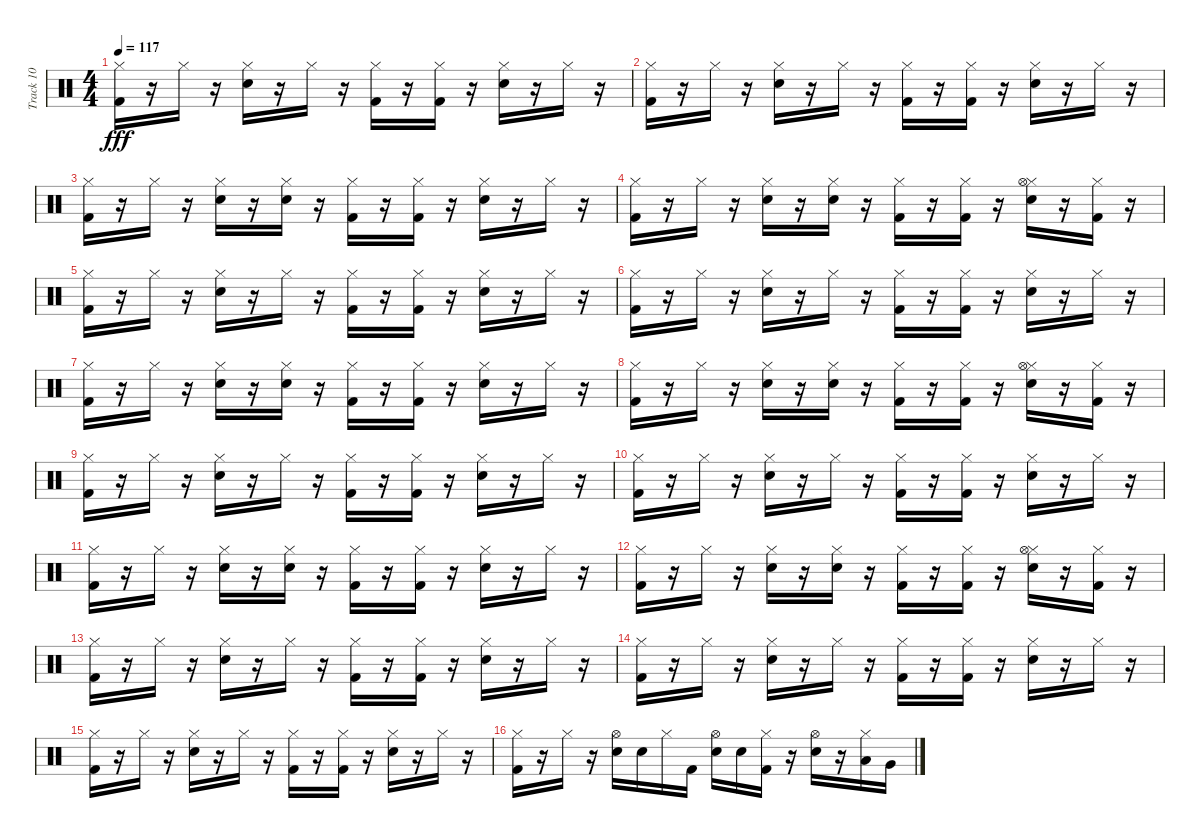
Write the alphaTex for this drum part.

\track ("Track 10" "Track 10") {instrument percussion}
\staff {score}
\articulation defaults
\ts (4 4)
\tempo 117
\clef neutral
\ks c
("Hi-Hat (closed)" "Kick (hit) 2").16{dy fff} r.16 "Hi-Hat (closed)".16 r.16 ("Hi-Hat (closed)" "Snare (hit) 2").16 r.16 "Hi-Hat (closed)".16 r.16 ("Hi-Hat (closed)" "Kick (hit) 2").16 r.16 ("Hi-Hat (closed)" "Kick (hit) 2").16 r.16 ("Hi-Hat (closed)" "Snare (hit) 2").16 r.16 "Hi-Hat (closed)".16 r.16 |
("Hi-Hat (closed)" "Kick (hit) 2").16 r.16 "Hi-Hat (closed)".16 r.16 ("Hi-Hat (closed)" "Snare (hit) 2").16 r.16 "Hi-Hat (closed)".16 r.16 ("Hi-Hat (closed)" "Kick (hit) 2").16 r.16 ("Hi-Hat (closed)" "Kick (hit) 2").16 r.16 ("Hi-Hat (closed)" "Snare (hit) 2").16 r.16 "Hi-Hat (closed)".16 r.16 |
("Hi-Hat (closed)" "Kick (hit) 2").16 r.16 "Hi-Hat (closed)".16 r.16 ("Hi-Hat (closed)" "Snare (hit) 2").16 r.16 ("Hi-Hat (closed)" "Snare (hit) 2").16 r.16 ("Hi-Hat (closed)" "Kick (hit) 2").16 r.16 ("Hi-Hat (closed)" "Kick (hit) 2").16 r.16 ("Hi-Hat (closed)" "Snare (hit) 2").16 r.16 "Hi-Hat (closed)".16 r.16 |
("Hi-Hat (closed)" "Kick (hit) 2").16 r.16 "Hi-Hat (closed)".16 r.16 ("Hi-Hat (closed)" "Snare (hit) 2").16 r.16 ("Hi-Hat (closed)" "Snare (hit) 2").16 r.16 ("Hi-Hat (closed)" "Kick (hit) 2").16 r.16 ("Hi-Hat (closed)" "Kick (hit) 2").16 r.16 ("Hi-Hat (closed)" "Hi-Hat (open)" "Snare (hit) 2").16 r.16 ("Hi-Hat (closed)" "Kick (hit) 2").16 r.16 |
("Hi-Hat (closed)" "Kick (hit) 2").16 r.16 "Hi-Hat (closed)".16 r.16 ("Hi-Hat (closed)" "Snare (hit) 2").16 r.16 "Hi-Hat (closed)".16 r.16 ("Hi-Hat (closed)" "Kick (hit) 2").16 r.16 ("Hi-Hat (closed)" "Kick (hit) 2").16 r.16 ("Hi-Hat (closed)" "Snare (hit) 2").16 r.16 "Hi-Hat (closed)".16 r.16 |
("Hi-Hat (closed)" "Kick (hit) 2").16 r.16 "Hi-Hat (closed)".16 r.16 ("Hi-Hat (closed)" "Snare (hit) 2").16 r.16 "Hi-Hat (closed)".16 r.16 ("Hi-Hat (closed)" "Kick (hit) 2").16 r.16 ("Hi-Hat (closed)" "Kick (hit) 2").16 r.16 ("Hi-Hat (closed)" "Snare (hit) 2").16 r.16 "Hi-Hat (closed)".16 r.16 |
("Hi-Hat (closed)" "Kick (hit) 2").16 r.16 "Hi-Hat (closed)".16 r.16 ("Hi-Hat (closed)" "Snare (hit) 2").16 r.16 ("Hi-Hat (closed)" "Snare (hit) 2").16 r.16 ("Hi-Hat (closed)" "Kick (hit) 2").16 r.16 ("Hi-Hat (closed)" "Kick (hit) 2").16 r.16 ("Hi-Hat (closed)" "Snare (hit) 2").16 r.16 "Hi-Hat (closed)".16 r.16 |
("Hi-Hat (closed)" "Kick (hit) 2").16 r.16 "Hi-Hat (closed)".16 r.16 ("Hi-Hat (closed)" "Snare (hit) 2").16 r.16 ("Hi-Hat (closed)" "Snare (hit) 2").16 r.16 ("Hi-Hat (closed)" "Kick (hit) 2").16 r.16 ("Hi-Hat (closed)" "Kick (hit) 2").16 r.16 ("Hi-Hat (closed)" "Hi-Hat (open)" "Snare (hit) 2").16 r.16 ("Hi-Hat (closed)" "Kick (hit) 2").16 r.16 |
("Hi-Hat (closed)" "Kick (hit) 2").16 r.16 "Hi-Hat (closed)".16 r.16 ("Hi-Hat (closed)" "Snare (hit) 2").16 r.16 "Hi-Hat (closed)".16 r.16 ("Hi-Hat (closed)" "Kick (hit) 2").16 r.16 ("Hi-Hat (closed)" "Kick (hit) 2").16 r.16 ("Hi-Hat (closed)" "Snare (hit) 2").16 r.16 "Hi-Hat (closed)".16 r.16 |
("Hi-Hat (closed)" "Kick (hit) 2").16 r.16 "Hi-Hat (closed)".16 r.16 ("Hi-Hat (closed)" "Snare (hit) 2").16 r.16 "Hi-Hat (closed)".16 r.16 ("Hi-Hat (closed)" "Kick (hit) 2").16 r.16 ("Hi-Hat (closed)" "Kick (hit) 2").16 r.16 ("Hi-Hat (closed)" "Snare (hit) 2").16 r.16 "Hi-Hat (closed)".16 r.16 |
("Hi-Hat (closed)" "Kick (hit) 2").16 r.16 "Hi-Hat (closed)".16 r.16 ("Hi-Hat (closed)" "Snare (hit) 2").16 r.16 ("Hi-Hat (closed)" "Snare (hit) 2").16 r.16 ("Hi-Hat (closed)" "Kick (hit) 2").16 r.16 ("Hi-Hat (closed)" "Kick (hit) 2").16 r.16 ("Hi-Hat (closed)" "Snare (hit) 2").16 r.16 "Hi-Hat (closed)".16 r.16 |
("Hi-Hat (closed)" "Kick (hit) 2").16 r.16 "Hi-Hat (closed)".16 r.16 ("Hi-Hat (closed)" "Snare (hit) 2").16 r.16 ("Hi-Hat (closed)" "Snare (hit) 2").16 r.16 ("Hi-Hat (closed)" "Kick (hit) 2").16 r.16 ("Hi-Hat (closed)" "Kick (hit) 2").16 r.16 ("Hi-Hat (closed)" "Hi-Hat (open)" "Snare (hit) 2").16 r.16 ("Hi-Hat (closed)" "Kick (hit) 2").16 r.16 |
("Hi-Hat (closed)" "Kick (hit) 2").16 r.16 "Hi-Hat (closed)".16 r.16 ("Hi-Hat (closed)" "Snare (hit) 2").16 r.16 "Hi-Hat (closed)".16 r.16 ("Hi-Hat (closed)" "Kick (hit) 2").16 r.16 ("Hi-Hat (closed)" "Kick (hit) 2").16 r.16 ("Hi-Hat (closed)" "Snare (hit) 2").16 r.16 "Hi-Hat (closed)".16 r.16 |
("Hi-Hat (closed)" "Kick (hit) 2").16 r.16 "Hi-Hat (closed)".16 r.16 ("Hi-Hat (closed)" "Snare (hit) 2").16 r.16 "Hi-Hat (closed)".16 r.16 ("Hi-Hat (closed)" "Kick (hit) 2").16 r.16 ("Hi-Hat (closed)" "Kick (hit) 2").16 r.16 ("Hi-Hat (closed)" "Snare (hit) 2").16 r.16 "Hi-Hat (closed)".16 r.16 |
("Hi-Hat (closed)" "Kick (hit) 2").16 r.16 "Hi-Hat (closed)".16 r.16 ("Hi-Hat (closed)" "Snare (hit) 2").16 r.16 "Hi-Hat (closed)".16 r.16 ("Hi-Hat (closed)" "Kick (hit) 2").16 r.16 ("Hi-Hat (closed)" "Kick (hit) 2").16 r.16 ("Hi-Hat (closed)" "Snare (hit) 2").16 r.16 "Hi-Hat (closed)".16 r.16 |
("Hi-Hat (closed)" "Kick (hit) 2").16 r.16 "Hi-Hat (closed)".16 r.16 ("Hi-Hat (open)" "Snare (hit) 2").16 "Snare (hit) 2".16 "Hi-Hat (closed)".16 "Kick (hit) 2".16 ("Hi-Hat (open)" "Snare (hit) 2").16 "Snare (hit) 2".16 ("Hi-Hat (closed)" "Kick (hit) 2").16 r.16 ("Hi-Hat (open)" "Snare (hit) 2").16 r.16 ("Hi-Hat (closed)" "Low Tom (hit)").16 "Very Low Tom (hit)".16
